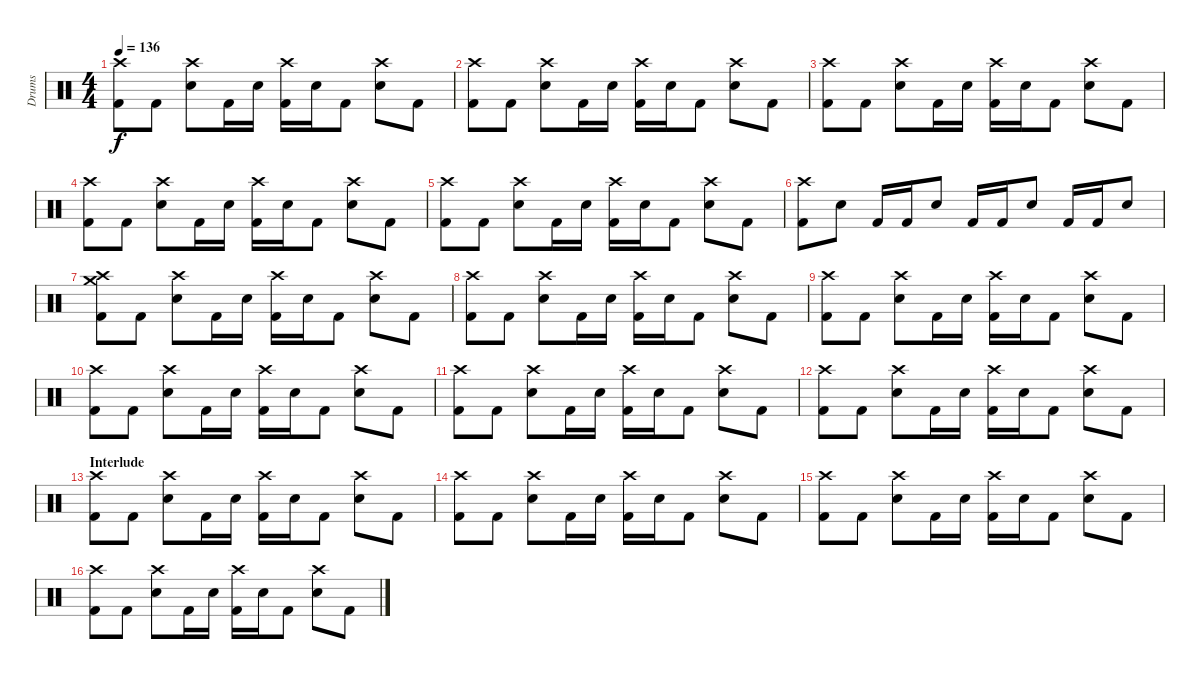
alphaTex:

\track ("Drums" "Drums") {instrument percussion}
\staff {score}
\articulation defaults
\ts (4 4)
\tempo 136
\clef neutral
\ks c
("Crash high (hit)" "Kick (hit) 2").8{dy f} "Kick (hit) 2".8 ("Crash high (hit)" "Electric Snare (hit)").8 "Kick (hit) 2".16 "Electric Snare (hit)".16 ("Crash high (hit)" "Kick (hit) 2").16 "Electric Snare (hit)".16 "Kick (hit) 2".8 ("Crash high (hit)" "Electric Snare (hit)").8 "Kick (hit) 2".8 |
("Crash high (hit)" "Kick (hit) 2").8 "Kick (hit) 2".8 ("Crash high (hit)" "Electric Snare (hit)").8 "Kick (hit) 2".16 "Electric Snare (hit)".16 ("Crash high (hit)" "Kick (hit) 2").16 "Electric Snare (hit)".16 "Kick (hit) 2".8 ("Crash high (hit)" "Electric Snare (hit)").8 "Kick (hit) 2".8 |
("Crash high (hit)" "Kick (hit) 2").8 "Kick (hit) 2".8 ("Crash high (hit)" "Electric Snare (hit)").8 "Kick (hit) 2".16 "Electric Snare (hit)".16 ("Crash high (hit)" "Kick (hit) 2").16 "Electric Snare (hit)".16 "Kick (hit) 2".8 ("Crash high (hit)" "Electric Snare (hit)").8 "Kick (hit) 2".8 |
("Crash high (hit)" "Kick (hit) 2").8 "Kick (hit) 2".8 ("Crash high (hit)" "Electric Snare (hit)").8 "Kick (hit) 2".16 "Electric Snare (hit)".16 ("Crash high (hit)" "Kick (hit) 2").16 "Electric Snare (hit)".16 "Kick (hit) 2".8 ("Crash high (hit)" "Electric Snare (hit)").8 "Kick (hit) 2".8 |
("Crash high (hit)" "Kick (hit) 2").8 "Kick (hit) 2".8 ("Crash high (hit)" "Electric Snare (hit)").8 "Kick (hit) 2".16 "Electric Snare (hit)".16 ("Crash high (hit)" "Kick (hit) 2").16 "Electric Snare (hit)".16 "Kick (hit) 2".8 ("Crash high (hit)" "Electric Snare (hit)").8 "Kick (hit) 2".8 |
("Crash high (hit)" "Kick (hit) 2").8 "Electric Snare (hit)".8 "Kick (hit) 2".16 "Kick (hit) 2".16 "Electric Snare (hit)".8 "Kick (hit) 2".16 "Kick (hit) 2".16 "Electric Snare (hit)".8 "Kick (hit) 2".16 "Kick (hit) 2".16 "Electric Snare (hit)".8 |
("Crash medium (hit)" "Crash high (hit)" "Kick (hit) 2").8 "Kick (hit) 2".8 ("Crash high (hit)" "Electric Snare (hit)").8 "Kick (hit) 2".16 "Electric Snare (hit)".16 ("Crash high (hit)" "Kick (hit) 2").16 "Electric Snare (hit)".16 "Kick (hit) 2".8 ("Crash high (hit)" "Electric Snare (hit)").8 "Kick (hit) 2".8 |
("Crash high (hit)" "Kick (hit) 2").8 "Kick (hit) 2".8 ("Crash high (hit)" "Electric Snare (hit)").8 "Kick (hit) 2".16 "Electric Snare (hit)".16 ("Crash high (hit)" "Kick (hit) 2").16 "Electric Snare (hit)".16 "Kick (hit) 2".8 ("Crash high (hit)" "Electric Snare (hit)").8 "Kick (hit) 2".8 |
("Crash high (hit)" "Kick (hit) 2").8 "Kick (hit) 2".8 ("Crash high (hit)" "Electric Snare (hit)").8 "Kick (hit) 2".16 "Electric Snare (hit)".16 ("Crash high (hit)" "Kick (hit) 2").16 "Electric Snare (hit)".16 "Kick (hit) 2".8 ("Crash high (hit)" "Electric Snare (hit)").8 "Kick (hit) 2".8 |
("Crash high (hit)" "Kick (hit) 2").8 "Kick (hit) 2".8 ("Crash high (hit)" "Electric Snare (hit)").8 "Kick (hit) 2".16 "Electric Snare (hit)".16 ("Crash high (hit)" "Kick (hit) 2").16 "Electric Snare (hit)".16 "Kick (hit) 2".8 ("Crash high (hit)" "Electric Snare (hit)").8 "Kick (hit) 2".8 |
("Crash high (hit)" "Kick (hit) 2").8 "Kick (hit) 2".8 ("Crash high (hit)" "Electric Snare (hit)").8 "Kick (hit) 2".16 "Electric Snare (hit)".16 ("Crash high (hit)" "Kick (hit) 2").16 "Electric Snare (hit)".16 "Kick (hit) 2".8 ("Crash high (hit)" "Electric Snare (hit)").8 "Kick (hit) 2".8 |
("Crash high (hit)" "Kick (hit) 2").8 "Kick (hit) 2".8 ("Crash high (hit)" "Electric Snare (hit)").8 "Kick (hit) 2".16 "Electric Snare (hit)".16 ("Crash high (hit)" "Kick (hit) 2").16 "Electric Snare (hit)".16 "Kick (hit) 2".8 ("Crash high (hit)" "Electric Snare (hit)").8 "Kick (hit) 2".8 |
\section ("" "Interlude")
("Crash high (hit)" "Kick (hit) 2").8 "Kick (hit) 2".8 ("Crash high (hit)" "Electric Snare (hit)").8 "Kick (hit) 2".16 "Electric Snare (hit)".16 ("Crash high (hit)" "Kick (hit) 2").16 "Electric Snare (hit)".16 "Kick (hit) 2".8 ("Crash high (hit)" "Electric Snare (hit)").8 "Kick (hit) 2".8 |
("Crash high (hit)" "Kick (hit) 2").8 "Kick (hit) 2".8 ("Crash high (hit)" "Electric Snare (hit)").8 "Kick (hit) 2".16 "Electric Snare (hit)".16 ("Crash high (hit)" "Kick (hit) 2").16 "Electric Snare (hit)".16 "Kick (hit) 2".8 ("Crash high (hit)" "Electric Snare (hit)").8 "Kick (hit) 2".8 |
("Crash high (hit)" "Kick (hit) 2").8 "Kick (hit) 2".8 ("Crash high (hit)" "Electric Snare (hit)").8 "Kick (hit) 2".16 "Electric Snare (hit)".16 ("Crash high (hit)" "Kick (hit) 2").16 "Electric Snare (hit)".16 "Kick (hit) 2".8 ("Crash high (hit)" "Electric Snare (hit)").8 "Kick (hit) 2".8 |
("Crash high (hit)" "Kick (hit) 2").8 "Kick (hit) 2".8 ("Crash high (hit)" "Electric Snare (hit)").8 "Kick (hit) 2".16 "Electric Snare (hit)".16 ("Crash high (hit)" "Kick (hit) 2").16 "Electric Snare (hit)".16 "Kick (hit) 2".8 ("Crash high (hit)" "Electric Snare (hit)").8 "Kick (hit) 2".8
